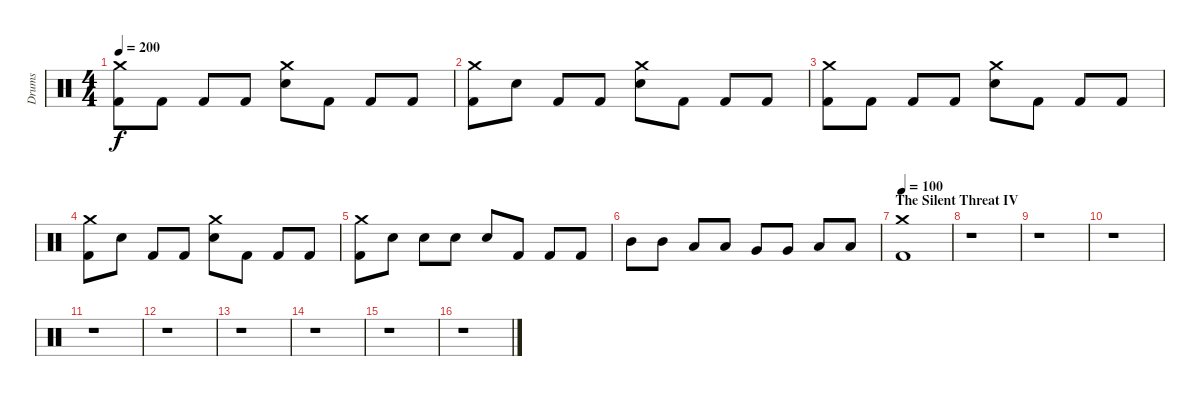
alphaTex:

\track ("Drums" "Drums") {instrument percussion}
\staff {score}
\articulation defaults
\ts (4 4)
\tempo 200
\clef neutral
\ks c
("Crash medium (hit)" "Kick (hit) 2").8{dy f} "Kick (hit) 2".8 "Kick (hit) 2".8 "Kick (hit) 2".8 ("Crash medium (hit)" "Electric Snare (hit)").8 "Kick (hit) 2".8 "Kick (hit) 2".8 "Kick (hit) 2".8 |
("Crash medium (hit)" "Kick (hit) 2").8 "Electric Snare (hit)".8 "Kick (hit) 2".8 "Kick (hit) 2".8 ("Crash medium (hit)" "Electric Snare (hit)").8 "Kick (hit) 2".8 "Kick (hit) 2".8 "Kick (hit) 2".8 |
("Crash medium (hit)" "Kick (hit) 2").8 "Kick (hit) 2".8 "Kick (hit) 2".8 "Kick (hit) 2".8 ("Crash medium (hit)" "Electric Snare (hit)").8 "Kick (hit) 2".8 "Kick (hit) 2".8 "Kick (hit) 2".8 |
("Crash medium (hit)" "Kick (hit) 2").8 "Electric Snare (hit)".8 "Kick (hit) 2".8 "Kick (hit) 2".8 ("Crash medium (hit)" "Electric Snare (hit)").8 "Kick (hit) 2".8 "Kick (hit) 2".8 "Kick (hit) 2".8 |
("Crash medium (hit)" "Kick (hit) 2").8 "Electric Snare (hit)".8 "Electric Snare (hit)".8 "Electric Snare (hit)".8 "Electric Snare (hit)".8 "Kick (hit) 2".8 "Kick (hit) 2".8 "Kick (hit) 2".8 |
"Mid Tom (hit)".8 "Mid Tom (hit)".8 "Low Tom (hit)".8 "Low Tom (hit)".8 "Very Low Tom (hit)".8 "Very Low Tom (hit)".8 "Low Floor Tom (hit)".8 "Low Floor Tom (hit)".8 |
\section ("" "The Silent Threat IV")
\tempo 100
("Crash medium (hit)" "Kick (hit) 2").1 |
r.1 |
r.1 |
r.1 |
r.1 |
r.1 |
r.1 |
r.1 |
r.1 |
r.1
